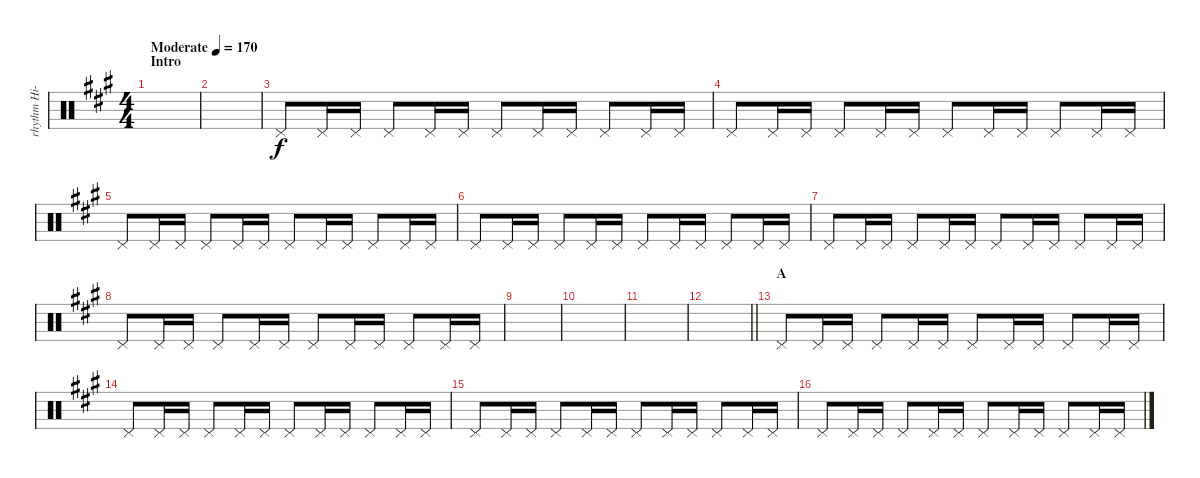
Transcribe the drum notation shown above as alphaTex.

\track ("rhythm Hi-hat" "rhythm Hi-") {instrument percussion}
\staff {score}
\articulation defaults
\ts (4 4)
\section ("" "Intro")
\tempo (170 "Moderate")
\clef neutral
\ks a
|
|
"Pedal Hi-Hat (hit)".8 "Pedal Hi-Hat (hit)".16 "Pedal Hi-Hat (hit)".16 "Pedal Hi-Hat (hit)".8 "Pedal Hi-Hat (hit)".16 "Pedal Hi-Hat (hit)".16 "Pedal Hi-Hat (hit)".8 "Pedal Hi-Hat (hit)".16 "Pedal Hi-Hat (hit)".16 "Pedal Hi-Hat (hit)".8 "Pedal Hi-Hat (hit)".16 "Pedal Hi-Hat (hit)".16 |
"Pedal Hi-Hat (hit)".8 "Pedal Hi-Hat (hit)".16 "Pedal Hi-Hat (hit)".16 "Pedal Hi-Hat (hit)".8 "Pedal Hi-Hat (hit)".16 "Pedal Hi-Hat (hit)".16 "Pedal Hi-Hat (hit)".8 "Pedal Hi-Hat (hit)".16 "Pedal Hi-Hat (hit)".16 "Pedal Hi-Hat (hit)".8 "Pedal Hi-Hat (hit)".16 "Pedal Hi-Hat (hit)".16 |
"Pedal Hi-Hat (hit)".8 "Pedal Hi-Hat (hit)".16 "Pedal Hi-Hat (hit)".16 "Pedal Hi-Hat (hit)".8 "Pedal Hi-Hat (hit)".16 "Pedal Hi-Hat (hit)".16 "Pedal Hi-Hat (hit)".8 "Pedal Hi-Hat (hit)".16 "Pedal Hi-Hat (hit)".16 "Pedal Hi-Hat (hit)".8 "Pedal Hi-Hat (hit)".16 "Pedal Hi-Hat (hit)".16 |
"Pedal Hi-Hat (hit)".8 "Pedal Hi-Hat (hit)".16 "Pedal Hi-Hat (hit)".16 "Pedal Hi-Hat (hit)".8 "Pedal Hi-Hat (hit)".16 "Pedal Hi-Hat (hit)".16 "Pedal Hi-Hat (hit)".8 "Pedal Hi-Hat (hit)".16 "Pedal Hi-Hat (hit)".16 "Pedal Hi-Hat (hit)".8 "Pedal Hi-Hat (hit)".16 "Pedal Hi-Hat (hit)".16 |
"Pedal Hi-Hat (hit)".8 "Pedal Hi-Hat (hit)".16 "Pedal Hi-Hat (hit)".16 "Pedal Hi-Hat (hit)".8 "Pedal Hi-Hat (hit)".16 "Pedal Hi-Hat (hit)".16 "Pedal Hi-Hat (hit)".8 "Pedal Hi-Hat (hit)".16 "Pedal Hi-Hat (hit)".16 "Pedal Hi-Hat (hit)".8 "Pedal Hi-Hat (hit)".16 "Pedal Hi-Hat (hit)".16 |
"Pedal Hi-Hat (hit)".8 "Pedal Hi-Hat (hit)".16 "Pedal Hi-Hat (hit)".16 "Pedal Hi-Hat (hit)".8 "Pedal Hi-Hat (hit)".16 "Pedal Hi-Hat (hit)".16 "Pedal Hi-Hat (hit)".8 "Pedal Hi-Hat (hit)".16 "Pedal Hi-Hat (hit)".16 "Pedal Hi-Hat (hit)".8 "Pedal Hi-Hat (hit)".16 "Pedal Hi-Hat (hit)".16 |
|
|
|
\barLineRight lightlight
|
\section ("" "A")
"Pedal Hi-Hat (hit)".8 "Pedal Hi-Hat (hit)".16 "Pedal Hi-Hat (hit)".16 "Pedal Hi-Hat (hit)".8 "Pedal Hi-Hat (hit)".16 "Pedal Hi-Hat (hit)".16 "Pedal Hi-Hat (hit)".8 "Pedal Hi-Hat (hit)".16 "Pedal Hi-Hat (hit)".16 "Pedal Hi-Hat (hit)".8 "Pedal Hi-Hat (hit)".16 "Pedal Hi-Hat (hit)".16 |
"Pedal Hi-Hat (hit)".8 "Pedal Hi-Hat (hit)".16 "Pedal Hi-Hat (hit)".16 "Pedal Hi-Hat (hit)".8 "Pedal Hi-Hat (hit)".16 "Pedal Hi-Hat (hit)".16 "Pedal Hi-Hat (hit)".8 "Pedal Hi-Hat (hit)".16 "Pedal Hi-Hat (hit)".16 "Pedal Hi-Hat (hit)".8 "Pedal Hi-Hat (hit)".16 "Pedal Hi-Hat (hit)".16 |
"Pedal Hi-Hat (hit)".8 "Pedal Hi-Hat (hit)".16 "Pedal Hi-Hat (hit)".16 "Pedal Hi-Hat (hit)".8 "Pedal Hi-Hat (hit)".16 "Pedal Hi-Hat (hit)".16 "Pedal Hi-Hat (hit)".8 "Pedal Hi-Hat (hit)".16 "Pedal Hi-Hat (hit)".16 "Pedal Hi-Hat (hit)".8 "Pedal Hi-Hat (hit)".16 "Pedal Hi-Hat (hit)".16 |
"Pedal Hi-Hat (hit)".8 "Pedal Hi-Hat (hit)".16 "Pedal Hi-Hat (hit)".16 "Pedal Hi-Hat (hit)".8 "Pedal Hi-Hat (hit)".16 "Pedal Hi-Hat (hit)".16 "Pedal Hi-Hat (hit)".8 "Pedal Hi-Hat (hit)".16 "Pedal Hi-Hat (hit)".16 "Pedal Hi-Hat (hit)".8 "Pedal Hi-Hat (hit)".16 "Pedal Hi-Hat (hit)".16
